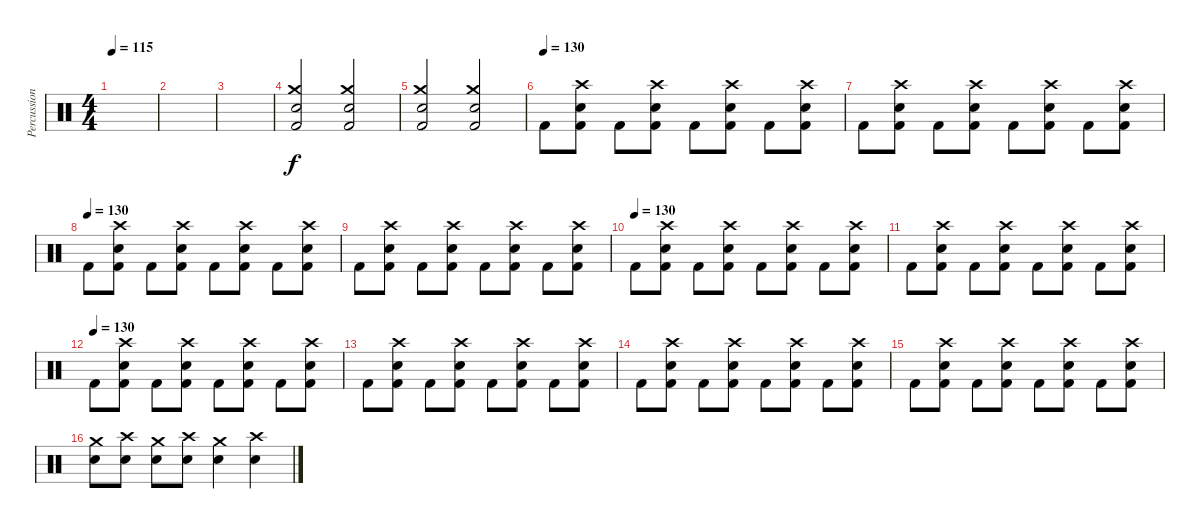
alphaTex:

\track ("Percussion" "Percussion") {instrument percussion}
\staff {score}
\articulation defaults
\ts (4 4)
\tempo 115
\clef neutral
\ks c
|
|
|
("Kick (hit) 2" "Crash medium (hit)" "Electric Snare (hit)").2 ("Kick (hit) 2" "Crash medium (hit)" "Electric Snare (hit)").2 |
("Kick (hit) 2" "Crash medium (hit)" "Electric Snare (hit)").2 ("Kick (hit) 2" "Crash medium (hit)" "Electric Snare (hit)").2 |
\tempo (130)
"Kick (hit) 2".8 ("Crash high (hit)" "Electric Snare (hit)" "Kick (hit) 2").8 "Kick (hit) 2".8 ("Crash high (hit)" "Electric Snare (hit)" "Kick (hit) 2").8 "Kick (hit) 2".8 ("Crash high (hit)" "Electric Snare (hit)" "Kick (hit) 2").8 "Kick (hit) 2".8 ("Crash high (hit)" "Electric Snare (hit)" "Kick (hit) 2").8 |
"Kick (hit) 2".8 ("Crash high (hit)" "Electric Snare (hit)" "Kick (hit) 2").8 "Kick (hit) 2".8 ("Crash high (hit)" "Electric Snare (hit)" "Kick (hit) 2").8 "Kick (hit) 2".8 ("Crash high (hit)" "Electric Snare (hit)" "Kick (hit) 2").8 "Kick (hit) 2".8 ("Crash high (hit)" "Electric Snare (hit)" "Kick (hit) 2").8 |
\tempo (130)
"Kick (hit) 2".8 ("Crash high (hit)" "Electric Snare (hit)" "Kick (hit) 2").8 "Kick (hit) 2".8 ("Crash high (hit)" "Electric Snare (hit)" "Kick (hit) 2").8 "Kick (hit) 2".8 ("Crash high (hit)" "Electric Snare (hit)" "Kick (hit) 2").8 "Kick (hit) 2".8 ("Crash high (hit)" "Electric Snare (hit)" "Kick (hit) 2").8 |
"Kick (hit) 2".8 ("Crash high (hit)" "Electric Snare (hit)" "Kick (hit) 2").8 "Kick (hit) 2".8 ("Crash high (hit)" "Electric Snare (hit)" "Kick (hit) 2").8 "Kick (hit) 2".8 ("Crash high (hit)" "Electric Snare (hit)" "Kick (hit) 2").8 "Kick (hit) 2".8 ("Crash high (hit)" "Electric Snare (hit)" "Kick (hit) 2").8 |
\tempo (130)
"Kick (hit) 2".8 ("Crash high (hit)" "Electric Snare (hit)" "Kick (hit) 2").8 "Kick (hit) 2".8 ("Crash high (hit)" "Electric Snare (hit)" "Kick (hit) 2").8 "Kick (hit) 2".8 ("Crash high (hit)" "Electric Snare (hit)" "Kick (hit) 2").8 "Kick (hit) 2".8 ("Crash high (hit)" "Electric Snare (hit)" "Kick (hit) 2").8 |
"Kick (hit) 2".8 ("Crash high (hit)" "Electric Snare (hit)" "Kick (hit) 2").8 "Kick (hit) 2".8 ("Crash high (hit)" "Electric Snare (hit)" "Kick (hit) 2").8 "Kick (hit) 2".8 ("Crash high (hit)" "Electric Snare (hit)" "Kick (hit) 2").8 "Kick (hit) 2".8 ("Crash high (hit)" "Electric Snare (hit)" "Kick (hit) 2").8 |
\tempo (130)
"Kick (hit) 2".8 ("Crash high (hit)" "Electric Snare (hit)" "Kick (hit) 2").8 "Kick (hit) 2".8 ("Crash high (hit)" "Electric Snare (hit)" "Kick (hit) 2").8 "Kick (hit) 2".8 ("Crash high (hit)" "Electric Snare (hit)" "Kick (hit) 2").8 "Kick (hit) 2".8 ("Crash high (hit)" "Electric Snare (hit)" "Kick (hit) 2").8 |
"Kick (hit) 2".8 ("Crash high (hit)" "Electric Snare (hit)" "Kick (hit) 2").8 "Kick (hit) 2".8 ("Crash high (hit)" "Electric Snare (hit)" "Kick (hit) 2").8 "Kick (hit) 2".8 ("Crash high (hit)" "Electric Snare (hit)" "Kick (hit) 2").8 "Kick (hit) 2".8 ("Crash high (hit)" "Electric Snare (hit)" "Kick (hit) 2").8 |
"Kick (hit) 2".8 ("Crash high (hit)" "Electric Snare (hit)" "Kick (hit) 2").8 "Kick (hit) 2".8 ("Crash high (hit)" "Electric Snare (hit)" "Kick (hit) 2").8 "Kick (hit) 2".8 ("Crash high (hit)" "Electric Snare (hit)" "Kick (hit) 2").8 "Kick (hit) 2".8 ("Crash high (hit)" "Electric Snare (hit)" "Kick (hit) 2").8 |
"Kick (hit) 2".8 ("Crash high (hit)" "Electric Snare (hit)" "Kick (hit) 2").8 "Kick (hit) 2".8 ("Crash high (hit)" "Electric Snare (hit)" "Kick (hit) 2").8 "Kick (hit) 2".8 ("Crash high (hit)" "Electric Snare (hit)" "Kick (hit) 2").8 "Kick (hit) 2".8 ("Crash high (hit)" "Electric Snare (hit)" "Kick (hit) 2").8 |
("Crash medium (hit)" "Electric Snare (hit)").8 ("Crash high (hit)" "Electric Snare (hit)").8 ("Crash medium (hit)" "Electric Snare (hit)").8 ("Crash high (hit)" "Electric Snare (hit)").8 ("Crash medium (hit)" "Electric Snare (hit)").4 ("Crash high (hit)" "Electric Snare (hit)").4
